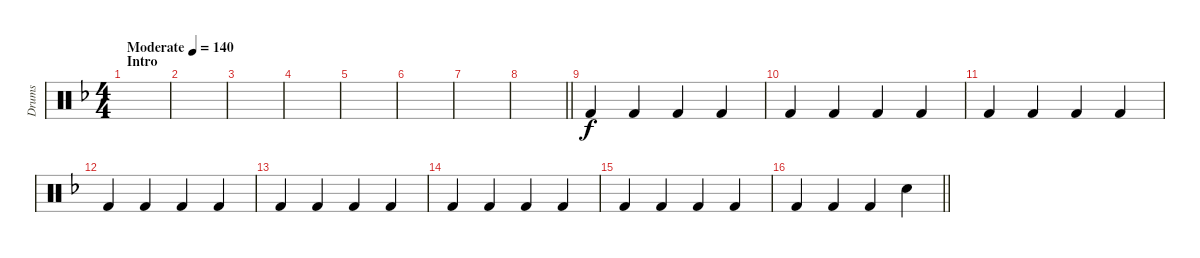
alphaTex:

\track ("Drums" "Drums") {instrument percussion}
\staff {score}
\articulation defaults
\ts (4 4)
\section ("" "Intro")
\tempo (140 "Moderate")
\clef neutral
\ks dminor
|
|
|
|
|
|
|
\barLineRight lightlight
|
"Kick (hit) 2".4 "Kick (hit) 2".4 "Kick (hit) 2".4 "Kick (hit) 2".4 |
"Kick (hit) 2".4 "Kick (hit) 2".4 "Kick (hit) 2".4 "Kick (hit) 2".4 |
"Kick (hit) 2".4 "Kick (hit) 2".4 "Kick (hit) 2".4 "Kick (hit) 2".4 |
"Kick (hit) 2".4 "Kick (hit) 2".4 "Kick (hit) 2".4 "Kick (hit) 2".4 |
"Kick (hit) 2".4 "Kick (hit) 2".4 "Kick (hit) 2".4 "Kick (hit) 2".4 |
"Kick (hit) 2".4 "Kick (hit) 2".4 "Kick (hit) 2".4 "Kick (hit) 2".4 |
"Kick (hit) 2".4 "Kick (hit) 2".4 "Kick (hit) 2".4 "Kick (hit) 2".4 |
\barLineRight lightlight "Kick (hit) 2".4 "Kick (hit) 2".4 "Kick (hit) 2".4 "Snare (hit) 2".4
